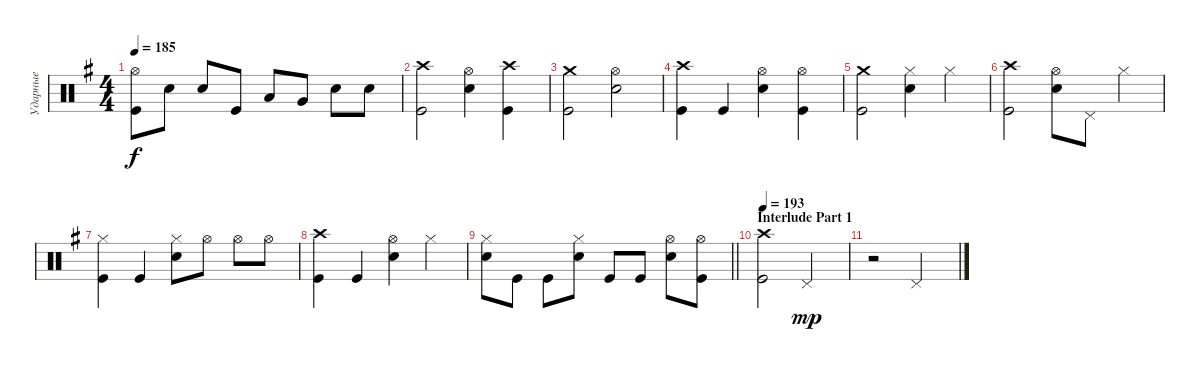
\track ("Ударные" "Ударные") {instrument percussion}
\staff {score}
\articulation defaults
\ts (4 4)
\tempo 185
\clef neutral
\ks eminor
("Kick (hit)" "Hi-Hat (open)").8{dy f} "Snare (hit) 2".8 "Snare (hit) 2".8 "Kick (hit)".8 "Low Tom (hit)".8 "Very Low Tom (hit)".8 "Snare (hit) 2".8 "Snare (hit) 2".8 |
("Kick (hit)" "Crash high (hit)").2 ("Snare (hit) 2" "Hi-Hat (open)").4 ("Kick (hit)" "Crash high (hit)").4 |
("Kick (hit)" "Crash medium (hit)").2 ("Snare (hit) 2" "Hi-Hat (open)").2 |
("Kick (hit)" "Crash high (hit)").4 "Kick (hit)".4 ("Snare (hit) 2" "Hi-Hat (open)").4 ("Kick (hit)" "Hi-Hat (open)").4 |
("Kick (hit)" "Crash medium (hit)").2 ("Snare (hit) 2" "Hi-Hat (closed)").4 "Hi-Hat (closed)".4 |
("Kick (hit)" "Crash high (hit)").2 ("Snare (hit) 2" "Hi-Hat (open)").8 "Pedal Hi-Hat (hit)".8 "Hi-Hat (closed)".4 |
("Kick (hit)" "Hi-Hat (closed)").4 "Kick (hit)".4 ("Hi-Hat (closed)" "Snare (hit) 2").8 "Hi-Hat (open)".8 "Hi-Hat (open)".8 "Hi-Hat (open)".8 |
("Kick (hit)" "Crash high (hit)").4 "Kick (hit)".4 ("Hi-Hat (open)" "Snare (hit) 2").4 "Hi-Hat (closed)".4 |
\barLineRight lightlight
("Snare (hit) 2" "Hi-Hat (closed)").8 "Kick (hit)".8 "Kick (hit)".8 ("Snare (hit) 2" "Hi-Hat (closed)").8 "Kick (hit)".8 "Kick (hit)".8 ("Snare (hit) 2" "Hi-Hat (open)").8 ("Kick (hit)" "Hi-Hat (open)").8 |
\section ("" "Interlude Part 1")
\tempo 193
("Kick (hit)" "Crash high (hit)").2 "Pedal Hi-Hat (hit)".2{dy mp} |
r.2 "Pedal Hi-Hat (hit)".2
